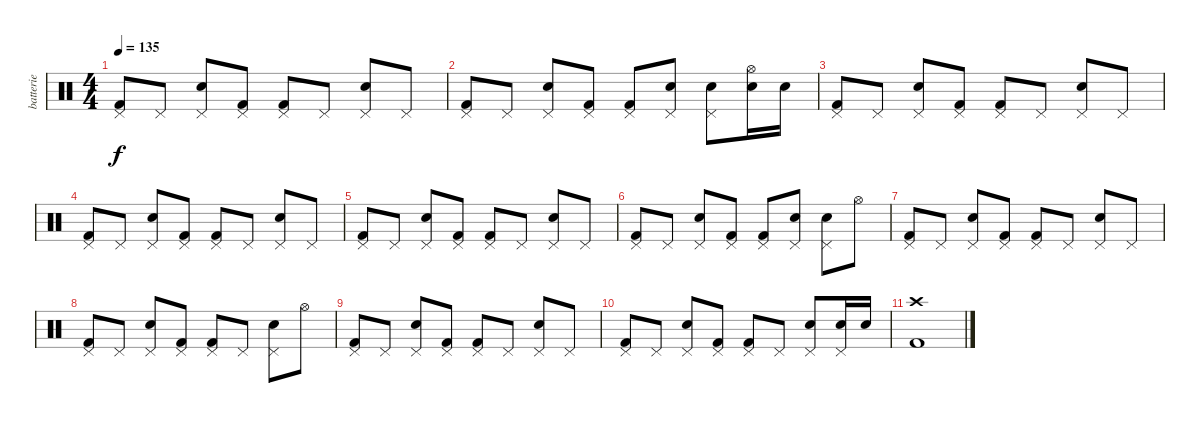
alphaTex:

\track ("batterie" "batterie") {instrument percussion}
\staff {score}
\articulation defaults
\ts (4 4)
\tempo 135
\clef neutral
\ks c
("Pedal Hi-Hat (hit)" "Kick (hit) 2").8{dy f} "Pedal Hi-Hat (hit)".8 ("Pedal Hi-Hat (hit)" "Snare (hit) 2").8 ("Pedal Hi-Hat (hit)" "Kick (hit) 2").8 ("Pedal Hi-Hat (hit)" "Kick (hit) 2").8 "Pedal Hi-Hat (hit)".8 ("Pedal Hi-Hat (hit)" "Snare (hit) 2").8 "Pedal Hi-Hat (hit)".8 |
("Pedal Hi-Hat (hit)" "Kick (hit) 2").8 "Pedal Hi-Hat (hit)".8 ("Pedal Hi-Hat (hit)" "Snare (hit) 2").8 ("Pedal Hi-Hat (hit)" "Kick (hit) 2").8 ("Pedal Hi-Hat (hit)" "Kick (hit) 2").8 ("Pedal Hi-Hat (hit)" "Snare (hit) 2").8 ("Pedal Hi-Hat (hit)" "Snare (hit) 2").8 ("Hi-Hat (open)" "Snare (hit) 2").16 "Snare (hit) 2".16 |
("Pedal Hi-Hat (hit)" "Kick (hit) 2").8 "Pedal Hi-Hat (hit)".8 ("Pedal Hi-Hat (hit)" "Snare (hit) 2").8 ("Pedal Hi-Hat (hit)" "Kick (hit) 2").8 ("Pedal Hi-Hat (hit)" "Kick (hit) 2").8 "Pedal Hi-Hat (hit)".8 ("Pedal Hi-Hat (hit)" "Snare (hit) 2").8 "Pedal Hi-Hat (hit)".8 |
("Pedal Hi-Hat (hit)" "Kick (hit) 2").8 "Pedal Hi-Hat (hit)".8 ("Pedal Hi-Hat (hit)" "Snare (hit) 2").8 ("Pedal Hi-Hat (hit)" "Kick (hit) 2").8 ("Pedal Hi-Hat (hit)" "Kick (hit) 2").8 "Pedal Hi-Hat (hit)".8 ("Pedal Hi-Hat (hit)" "Snare (hit) 2").8 "Pedal Hi-Hat (hit)".8 |
("Pedal Hi-Hat (hit)" "Kick (hit) 2").8 "Pedal Hi-Hat (hit)".8 ("Pedal Hi-Hat (hit)" "Snare (hit) 2").8 ("Pedal Hi-Hat (hit)" "Kick (hit) 2").8 ("Pedal Hi-Hat (hit)" "Kick (hit) 2").8 "Pedal Hi-Hat (hit)".8 ("Pedal Hi-Hat (hit)" "Snare (hit) 2").8 "Pedal Hi-Hat (hit)".8 |
("Pedal Hi-Hat (hit)" "Kick (hit) 2").8 "Pedal Hi-Hat (hit)".8 ("Pedal Hi-Hat (hit)" "Snare (hit) 2").8 ("Pedal Hi-Hat (hit)" "Kick (hit) 2").8 ("Pedal Hi-Hat (hit)" "Kick (hit) 2").8 ("Pedal Hi-Hat (hit)" "Snare (hit) 2").8 ("Pedal Hi-Hat (hit)" "Snare (hit) 2").8 "Hi-Hat (open)".8 |
("Pedal Hi-Hat (hit)" "Kick (hit) 2").8 "Pedal Hi-Hat (hit)".8 ("Pedal Hi-Hat (hit)" "Snare (hit) 2").8 ("Pedal Hi-Hat (hit)" "Kick (hit) 2").8 ("Pedal Hi-Hat (hit)" "Kick (hit) 2").8 "Pedal Hi-Hat (hit)".8 ("Pedal Hi-Hat (hit)" "Snare (hit) 2").8 "Pedal Hi-Hat (hit)".8 |
("Pedal Hi-Hat (hit)" "Kick (hit) 2").8 "Pedal Hi-Hat (hit)".8 ("Pedal Hi-Hat (hit)" "Snare (hit) 2").8 ("Pedal Hi-Hat (hit)" "Kick (hit) 2").8 ("Pedal Hi-Hat (hit)" "Kick (hit) 2").8 "Pedal Hi-Hat (hit)".8 ("Pedal Hi-Hat (hit)" "Snare (hit) 2").8 "Hi-Hat (open)".8 |
("Pedal Hi-Hat (hit)" "Kick (hit) 2").8 "Pedal Hi-Hat (hit)".8 ("Pedal Hi-Hat (hit)" "Snare (hit) 2").8 ("Pedal Hi-Hat (hit)" "Kick (hit) 2").8 ("Pedal Hi-Hat (hit)" "Kick (hit) 2").8 "Pedal Hi-Hat (hit)".8 ("Pedal Hi-Hat (hit)" "Snare (hit) 2").8 "Pedal Hi-Hat (hit)".8 |
("Pedal Hi-Hat (hit)" "Kick (hit) 2").8 "Pedal Hi-Hat (hit)".8 ("Pedal Hi-Hat (hit)" "Snare (hit) 2").8 ("Pedal Hi-Hat (hit)" "Kick (hit) 2").8 ("Pedal Hi-Hat (hit)" "Kick (hit) 2").8 "Pedal Hi-Hat (hit)".8 ("Pedal Hi-Hat (hit)" "Snare (hit) 2").8 ("Pedal Hi-Hat (hit)" "Snare (hit) 2").16 "Snare (hit) 2".16 |
("Crash high (hit)" "Kick (hit) 2").1
